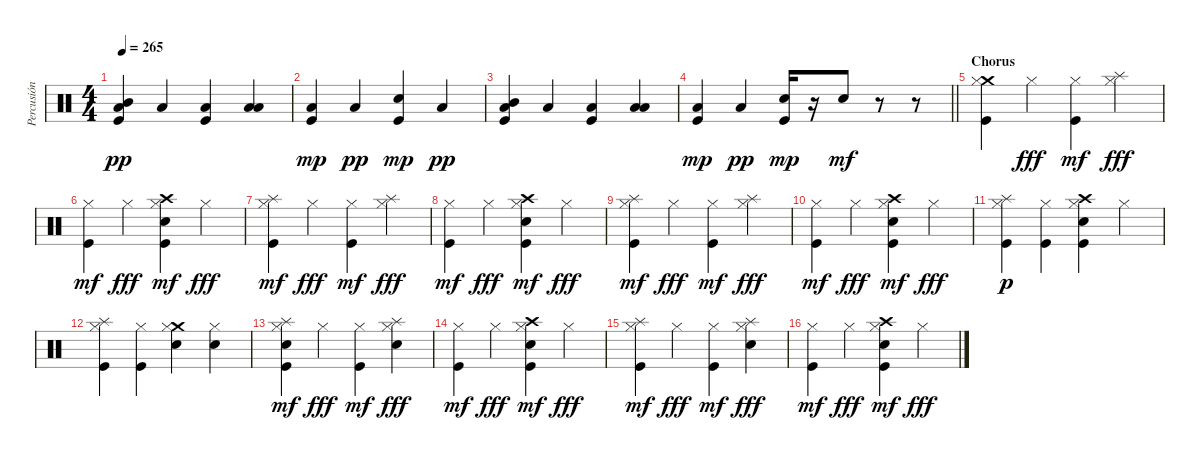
\track ("Percusión" "Percusión") {instrument percussion}
\staff {score}
\articulation defaults
\ts (4 4)
\tempo 265
\clef neutral
\ks c
("Mid Tom (hit)" "Low Floor Tom (hit)" "Kick (hit)").4{dy pp} "Low Floor Tom (hit)".4 ("Low Floor Tom (hit)" "Kick (hit)").4 ("Low Tom (hit)" "Low Floor Tom (hit)").4 |
("Low Floor Tom (hit)" "Kick (hit)").4{dy mp} "Low Floor Tom (hit)".4{dy pp} ("Electric Snare (hit)" "Kick (hit)").4{dy mp} "Low Floor Tom (hit)".4{dy pp} |
("Mid Tom (hit)" "Low Floor Tom (hit)" "Kick (hit)").4 "Low Floor Tom (hit)".4 ("Low Floor Tom (hit)" "Kick (hit)").4 ("Low Tom (hit)" "Low Floor Tom (hit)").4 |
\barLineRight lightlight
("Low Floor Tom (hit)" "Kick (hit)").4{dy mp} "Low Floor Tom (hit)".4{dy pp} ("Electric Snare (hit)" "Kick (hit)").16{dy mp} r.16 "Electric Snare (hit)".8{dy mf} r.8 r.8 |
\section ("" "Chorus")
("Crash medium (hit)" "Hi-Hat (closed)" "Kick (hit)").4 "Hi-Hat (closed)".4{dy fff} ("Hi-Hat (closed)" "Kick (hit)").4{dy mf} ("Splash (hit)" "Hi-Hat (closed)").4{dy fff} |
("Hi-Hat (closed)" "Kick (hit)").4{dy mf} "Hi-Hat (closed)".4{dy fff} ("Crash high (hit)" "Electric Snare (hit)" "Hi-Hat (closed)" "Kick (hit)").4{dy mf} "Hi-Hat (closed)".4{dy fff} |
("Splash (hit)" "Hi-Hat (closed)" "Kick (hit)").4{dy mf} "Hi-Hat (closed)".4{dy fff} ("Hi-Hat (closed)" "Kick (hit)").4{dy mf} ("Splash (hit)" "Hi-Hat (closed)").4{dy fff} |
("Hi-Hat (closed)" "Kick (hit)").4{dy mf} "Hi-Hat (closed)".4{dy fff} ("Crash high (hit)" "Electric Snare (hit)" "Hi-Hat (closed)" "Kick (hit)").4{dy mf} "Hi-Hat (closed)".4{dy fff} |
("Splash (hit)" "Hi-Hat (closed)" "Kick (hit)").4{dy mf} "Hi-Hat (closed)".4{dy fff} ("Hi-Hat (closed)" "Kick (hit)").4{dy mf} ("Splash (hit)" "Hi-Hat (closed)").4{dy fff} |
("Hi-Hat (closed)" "Kick (hit)").4{dy mf} "Hi-Hat (closed)".4{dy fff} ("Crash high (hit)" "Electric Snare (hit)" "Hi-Hat (closed)" "Kick (hit)").4{dy mf} "Hi-Hat (closed)".4{dy fff} |
("Splash (hit)" "Hi-Hat (closed)" "Kick (hit)").4{dy p} ("Hi-Hat (closed)" "Kick (hit)").4 ("Crash high (hit)" "Electric Snare (hit)" "Hi-Hat (closed)" "Kick (hit)").4 "Hi-Hat (closed)".4 |
("Splash (hit)" "Hi-Hat (closed)" "Kick (hit)").4 ("Hi-Hat (closed)" "Kick (hit)").4 ("Crash medium (hit)" "Electric Snare (hit)" "Hi-Hat (closed)").4 ("Electric Snare (hit)" "Hi-Hat (closed)").4 |
("Splash (hit)" "Electric Snare (hit)" "Hi-Hat (closed)" "Kick (hit)").4{dy mf} "Hi-Hat (closed)".4{dy fff} ("Hi-Hat (closed)" "Kick (hit)").4{dy mf} ("Splash (hit)" "Electric Snare (hit)" "Hi-Hat (closed)").4{dy fff} |
("Hi-Hat (closed)" "Kick (hit)").4{dy mf} "Hi-Hat (closed)".4{dy fff} ("Crash high (hit)" "Electric Snare (hit)" "Hi-Hat (closed)" "Kick (hit)").4{dy mf} "Hi-Hat (closed)".4{dy fff} |
("Splash (hit)" "Hi-Hat (closed)" "Kick (hit)").4{dy mf} "Hi-Hat (closed)".4{dy fff} ("Hi-Hat (closed)" "Kick (hit)").4{dy mf} ("Splash (hit)" "Electric Snare (hit)" "Hi-Hat (closed)").4{dy fff} |
("Hi-Hat (closed)" "Kick (hit)").4{dy mf} "Hi-Hat (closed)".4{dy fff} ("Crash high (hit)" "Electric Snare (hit)" "Hi-Hat (closed)" "Kick (hit)").4{dy mf} "Hi-Hat (closed)".4{dy fff}
